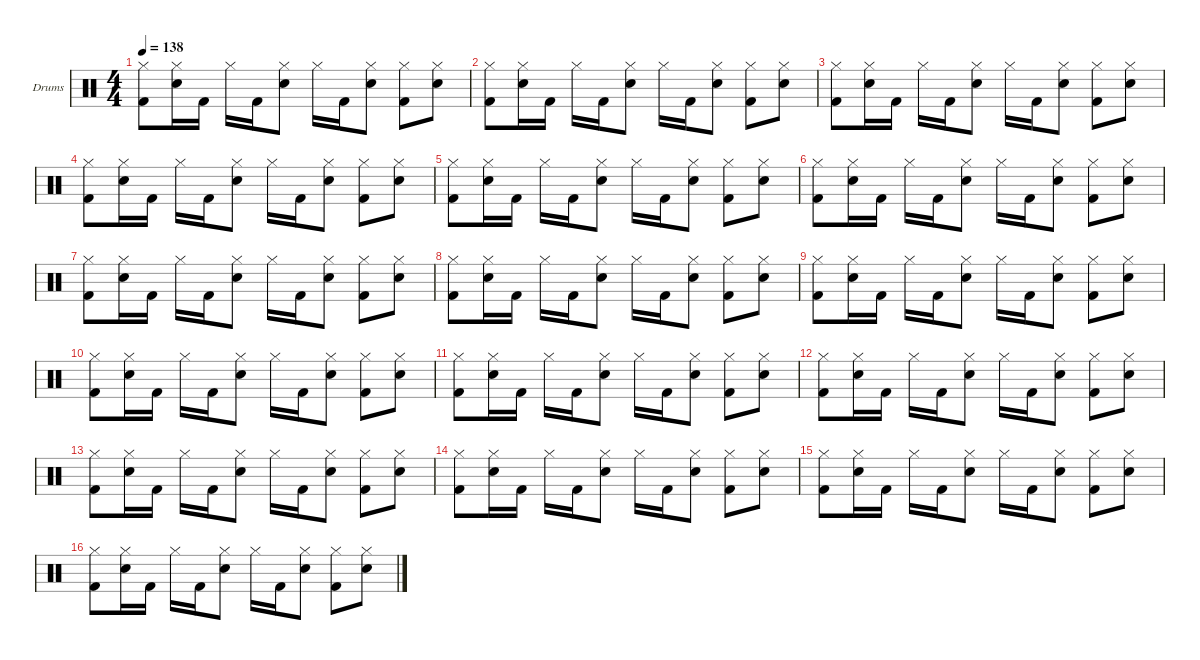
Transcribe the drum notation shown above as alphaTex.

\hideDynamics
\bracketExtendMode nobrackets
\firstSystemTrackNameOrientation horizontal
\otherSystemsTrackNameOrientation horizontal
\track ("Drumkit" "Drums") {instrument percussion}
\staff {score}
\articulation defaults
\ts (4 4)
\tempo 138
\clef neutral
\ks c
("Hi-Hat (closed)" "Kick (hit) 2").8{dy f beam Down} ("Snare (hit) 2" "Hi-Hat (closed)").16{beam Down} "Kick (hit) 2".16{beam Down} "Hi-Hat (closed)".16{beam Down} "Kick (hit) 2".16{beam Down} ("Snare (hit) 2" "Hi-Hat (closed)").8{beam Down} "Hi-Hat (closed)".16{beam Down} "Kick (hit) 2".16{beam Down} ("Snare (hit) 2" "Hi-Hat (closed)").8{beam Down} ("Hi-Hat (closed)" "Kick (hit) 2").8{beam Down} ("Snare (hit) 2" "Hi-Hat (closed)").8{beam Down} |
("Hi-Hat (closed)" "Kick (hit) 2").8{beam Down} ("Snare (hit) 2" "Hi-Hat (closed)").16{beam Down} "Kick (hit) 2".16{beam Down} "Hi-Hat (closed)".16{beam Down} "Kick (hit) 2".16{beam Down} ("Snare (hit) 2" "Hi-Hat (closed)").8{beam Down} "Hi-Hat (closed)".16{beam Down} "Kick (hit) 2".16{beam Down} ("Snare (hit) 2" "Hi-Hat (closed)").8{beam Down} ("Hi-Hat (closed)" "Kick (hit) 2").8{beam Down} ("Snare (hit) 2" "Hi-Hat (closed)").8{beam Down} |
("Hi-Hat (closed)" "Kick (hit) 2").8{beam Down} ("Snare (hit) 2" "Hi-Hat (closed)").16{beam Down} "Kick (hit) 2".16{beam Down} "Hi-Hat (closed)".16{beam Down} "Kick (hit) 2".16{beam Down} ("Snare (hit) 2" "Hi-Hat (closed)").8{beam Down} "Hi-Hat (closed)".16{beam Down} "Kick (hit) 2".16{beam Down} ("Snare (hit) 2" "Hi-Hat (closed)").8{beam Down} ("Hi-Hat (closed)" "Kick (hit) 2").8{beam Down} ("Snare (hit) 2" "Hi-Hat (closed)").8{beam Down} |
("Hi-Hat (closed)" "Kick (hit) 2").8{beam Down} ("Snare (hit) 2" "Hi-Hat (closed)").16{beam Down} "Kick (hit) 2".16{beam Down} "Hi-Hat (closed)".16{beam Down} "Kick (hit) 2".16{beam Down} ("Snare (hit) 2" "Hi-Hat (closed)").8{beam Down} "Hi-Hat (closed)".16{beam Down} "Kick (hit) 2".16{beam Down} ("Snare (hit) 2" "Hi-Hat (closed)").8{beam Down} ("Hi-Hat (closed)" "Kick (hit) 2").8{beam Down} ("Snare (hit) 2" "Hi-Hat (closed)").8{beam Down} |
("Hi-Hat (closed)" "Kick (hit) 2").8{beam Down} ("Snare (hit) 2" "Hi-Hat (closed)").16{beam Down} "Kick (hit) 2".16{beam Down} "Hi-Hat (closed)".16{beam Down} "Kick (hit) 2".16{beam Down} ("Snare (hit) 2" "Hi-Hat (closed)").8{beam Down} "Hi-Hat (closed)".16{beam Down} "Kick (hit) 2".16{beam Down} ("Snare (hit) 2" "Hi-Hat (closed)").8{beam Down} ("Hi-Hat (closed)" "Kick (hit) 2").8{beam Down} ("Snare (hit) 2" "Hi-Hat (closed)").8{beam Down} |
("Hi-Hat (closed)" "Kick (hit) 2").8{beam Down} ("Snare (hit) 2" "Hi-Hat (closed)").16{beam Down} "Kick (hit) 2".16{beam Down} "Hi-Hat (closed)".16{beam Down} "Kick (hit) 2".16{beam Down} ("Snare (hit) 2" "Hi-Hat (closed)").8{beam Down} "Hi-Hat (closed)".16{beam Down} "Kick (hit) 2".16{beam Down} ("Snare (hit) 2" "Hi-Hat (closed)").8{beam Down} ("Hi-Hat (closed)" "Kick (hit) 2").8{beam Down} ("Snare (hit) 2" "Hi-Hat (closed)").8{beam Down} |
("Hi-Hat (closed)" "Kick (hit) 2").8{beam Down} ("Snare (hit) 2" "Hi-Hat (closed)").16{beam Down} "Kick (hit) 2".16{beam Down} "Hi-Hat (closed)".16{beam Down} "Kick (hit) 2".16{beam Down} ("Snare (hit) 2" "Hi-Hat (closed)").8{beam Down} "Hi-Hat (closed)".16{beam Down} "Kick (hit) 2".16{beam Down} ("Snare (hit) 2" "Hi-Hat (closed)").8{beam Down} ("Hi-Hat (closed)" "Kick (hit) 2").8{beam Down} ("Snare (hit) 2" "Hi-Hat (closed)").8{beam Down} |
("Hi-Hat (closed)" "Kick (hit) 2").8{beam Down} ("Snare (hit) 2" "Hi-Hat (closed)").16{beam Down} "Kick (hit) 2".16{beam Down} "Hi-Hat (closed)".16{beam Down} "Kick (hit) 2".16{beam Down} ("Snare (hit) 2" "Hi-Hat (closed)").8{beam Down} "Hi-Hat (closed)".16{beam Down} "Kick (hit) 2".16{beam Down} ("Snare (hit) 2" "Hi-Hat (closed)").8{beam Down} ("Hi-Hat (closed)" "Kick (hit) 2").8{beam Down} ("Snare (hit) 2" "Hi-Hat (closed)").8{beam Down} |
("Hi-Hat (closed)" "Kick (hit) 2").8{beam Down} ("Snare (hit) 2" "Hi-Hat (closed)").16{beam Down} "Kick (hit) 2".16{beam Down} "Hi-Hat (closed)".16{beam Down} "Kick (hit) 2".16{beam Down} ("Snare (hit) 2" "Hi-Hat (closed)").8{beam Down} "Hi-Hat (closed)".16{beam Down} "Kick (hit) 2".16{beam Down} ("Snare (hit) 2" "Hi-Hat (closed)").8{beam Down} ("Hi-Hat (closed)" "Kick (hit) 2").8{beam Down} ("Snare (hit) 2" "Hi-Hat (closed)").8{beam Down} |
("Hi-Hat (closed)" "Kick (hit) 2").8{beam Down} ("Snare (hit) 2" "Hi-Hat (closed)").16{beam Down} "Kick (hit) 2".16{beam Down} "Hi-Hat (closed)".16{beam Down} "Kick (hit) 2".16{beam Down} ("Snare (hit) 2" "Hi-Hat (closed)").8{beam Down} "Hi-Hat (closed)".16{beam Down} "Kick (hit) 2".16{beam Down} ("Snare (hit) 2" "Hi-Hat (closed)").8{beam Down} ("Hi-Hat (closed)" "Kick (hit) 2").8{beam Down} ("Snare (hit) 2" "Hi-Hat (closed)").8{beam Down} |
("Hi-Hat (closed)" "Kick (hit) 2").8{beam Down} ("Snare (hit) 2" "Hi-Hat (closed)").16{beam Down} "Kick (hit) 2".16{beam Down} "Hi-Hat (closed)".16{beam Down} "Kick (hit) 2".16{beam Down} ("Snare (hit) 2" "Hi-Hat (closed)").8{beam Down} "Hi-Hat (closed)".16{beam Down} "Kick (hit) 2".16{beam Down} ("Snare (hit) 2" "Hi-Hat (closed)").8{beam Down} ("Hi-Hat (closed)" "Kick (hit) 2").8{beam Down} ("Snare (hit) 2" "Hi-Hat (closed)").8{beam Down} |
("Hi-Hat (closed)" "Kick (hit) 2").8{beam Down} ("Snare (hit) 2" "Hi-Hat (closed)").16{beam Down} "Kick (hit) 2".16{beam Down} "Hi-Hat (closed)".16{beam Down} "Kick (hit) 2".16{beam Down} ("Snare (hit) 2" "Hi-Hat (closed)").8{beam Down} "Hi-Hat (closed)".16{beam Down} "Kick (hit) 2".16{beam Down} ("Snare (hit) 2" "Hi-Hat (closed)").8{beam Down} ("Hi-Hat (closed)" "Kick (hit) 2").8{beam Down} ("Snare (hit) 2" "Hi-Hat (closed)").8{beam Down} |
("Hi-Hat (closed)" "Kick (hit) 2").8{beam Down} ("Snare (hit) 2" "Hi-Hat (closed)").16{beam Down} "Kick (hit) 2".16{beam Down} "Hi-Hat (closed)".16{beam Down} "Kick (hit) 2".16{beam Down} ("Snare (hit) 2" "Hi-Hat (closed)").8{beam Down} "Hi-Hat (closed)".16{beam Down} "Kick (hit) 2".16{beam Down} ("Snare (hit) 2" "Hi-Hat (closed)").8{beam Down} ("Hi-Hat (closed)" "Kick (hit) 2").8{beam Down} ("Snare (hit) 2" "Hi-Hat (closed)").8{beam Down} |
("Hi-Hat (closed)" "Kick (hit) 2").8{beam Down} ("Snare (hit) 2" "Hi-Hat (closed)").16{beam Down} "Kick (hit) 2".16{beam Down} "Hi-Hat (closed)".16{beam Down} "Kick (hit) 2".16{beam Down} ("Snare (hit) 2" "Hi-Hat (closed)").8{beam Down} "Hi-Hat (closed)".16{beam Down} "Kick (hit) 2".16{beam Down} ("Snare (hit) 2" "Hi-Hat (closed)").8{beam Down} ("Hi-Hat (closed)" "Kick (hit) 2").8{beam Down} ("Snare (hit) 2" "Hi-Hat (closed)").8{beam Down} |
("Hi-Hat (closed)" "Kick (hit) 2").8{beam Down} ("Snare (hit) 2" "Hi-Hat (closed)").16{beam Down} "Kick (hit) 2".16{beam Down} "Hi-Hat (closed)".16{beam Down} "Kick (hit) 2".16{beam Down} ("Snare (hit) 2" "Hi-Hat (closed)").8{beam Down} "Hi-Hat (closed)".16{beam Down} "Kick (hit) 2".16{beam Down} ("Snare (hit) 2" "Hi-Hat (closed)").8{beam Down} ("Hi-Hat (closed)" "Kick (hit) 2").8{beam Down} ("Snare (hit) 2" "Hi-Hat (closed)").8{beam Down} |
("Hi-Hat (closed)" "Kick (hit) 2").8{beam Down} ("Snare (hit) 2" "Hi-Hat (closed)").16{beam Down} "Kick (hit) 2".16{beam Down} "Hi-Hat (closed)".16{beam Down} "Kick (hit) 2".16{beam Down} ("Snare (hit) 2" "Hi-Hat (closed)").8{beam Down} "Hi-Hat (closed)".16{beam Down} "Kick (hit) 2".16{beam Down} ("Snare (hit) 2" "Hi-Hat (closed)").8{beam Down} ("Hi-Hat (closed)" "Kick (hit) 2").8{beam Down} ("Snare (hit) 2" "Hi-Hat (closed)").8{beam Down}
